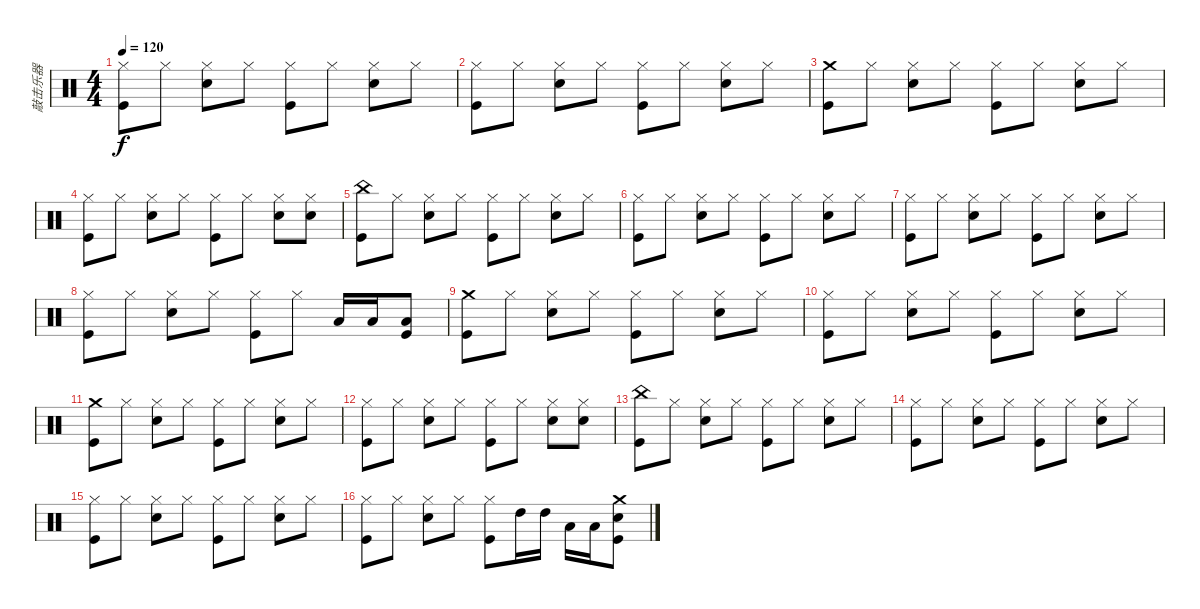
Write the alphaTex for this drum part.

\track ("敲击乐器" "敲击乐器") {instrument percussion}
\staff {score}
\articulation defaults
\ts (4 4)
\tempo 120
\clef neutral
\ks c
("Kick (hit)" "Hi-Hat (closed)").8{dy f} "Hi-Hat (closed)".8 ("Snare (hit) 2" "Hi-Hat (closed)").8 "Hi-Hat (closed)".8 ("Kick (hit)" "Hi-Hat (closed)").8 "Hi-Hat (closed)".8 ("Snare (hit) 2" "Hi-Hat (closed)").8 "Hi-Hat (closed)".8 |
("Kick (hit)" "Hi-Hat (closed)").8 "Hi-Hat (closed)".8 ("Snare (hit) 2" "Hi-Hat (closed)").8 "Hi-Hat (closed)".8 ("Kick (hit)" "Hi-Hat (closed)").8 "Hi-Hat (closed)".8 ("Snare (hit) 2" "Hi-Hat (closed)").8 "Hi-Hat (closed)".8 |
("Kick (hit)" "Crash medium (hit)").8 "Hi-Hat (closed)".8 ("Snare (hit) 2" "Hi-Hat (closed)").8 "Hi-Hat (closed)".8 ("Kick (hit)" "Hi-Hat (closed)").8 "Hi-Hat (closed)".8 ("Snare (hit) 2" "Hi-Hat (closed)").8 "Hi-Hat (closed)".8 |
("Kick (hit)" "Hi-Hat (closed)").8 "Hi-Hat (closed)".8 ("Snare (hit) 2" "Hi-Hat (closed)").8 "Hi-Hat (closed)".8 ("Kick (hit)" "Hi-Hat (closed)").8 "Hi-Hat (closed)".8 ("Snare (hit) 2" "Hi-Hat (closed)").8 ("Hi-Hat (closed)" "Snare (hit) 2").8 |
("Kick (hit)" "China (hit)").8 "Hi-Hat (closed)".8 ("Snare (hit) 2" "Hi-Hat (closed)").8 "Hi-Hat (closed)".8 ("Kick (hit)" "Hi-Hat (closed)").8 "Hi-Hat (closed)".8 ("Snare (hit) 2" "Hi-Hat (closed)").8 "Hi-Hat (closed)".8 |
("Kick (hit)" "Hi-Hat (closed)").8 "Hi-Hat (closed)".8 ("Snare (hit) 2" "Hi-Hat (closed)").8 "Hi-Hat (closed)".8 ("Kick (hit)" "Hi-Hat (closed)").8 "Hi-Hat (closed)".8 ("Snare (hit) 2" "Hi-Hat (closed)").8 "Hi-Hat (closed)".8 |
("Kick (hit)" "Hi-Hat (closed)").8 "Hi-Hat (closed)".8 ("Snare (hit) 2" "Hi-Hat (closed)").8 "Hi-Hat (closed)".8 ("Kick (hit)" "Hi-Hat (closed)").8 "Hi-Hat (closed)".8 ("Snare (hit) 2" "Hi-Hat (closed)").8 "Hi-Hat (closed)".8 |
("Kick (hit)" "Hi-Hat (closed)").8 "Hi-Hat (closed)".8 ("Snare (hit) 2" "Hi-Hat (closed)").8 "Hi-Hat (closed)".8 ("Kick (hit)" "Hi-Hat (closed)").8 "Hi-Hat (closed)".8 "Low Tom (hit)".16 "Low Tom (hit)".16 ("Kick (hit)" "Low Tom (hit)").8 |
("Kick (hit)" "Crash medium (hit)").8 "Hi-Hat (closed)".8 ("Snare (hit) 2" "Hi-Hat (closed)").8 "Hi-Hat (closed)".8 ("Kick (hit)" "Hi-Hat (closed)").8 "Hi-Hat (closed)".8 ("Snare (hit) 2" "Hi-Hat (closed)").8 "Hi-Hat (closed)".8 |
("Kick (hit)" "Hi-Hat (closed)").8 "Hi-Hat (closed)".8 ("Snare (hit) 2" "Hi-Hat (closed)").8 "Hi-Hat (closed)".8 ("Kick (hit)" "Hi-Hat (closed)").8 "Hi-Hat (closed)".8 ("Snare (hit) 2" "Hi-Hat (closed)").8 "Hi-Hat (closed)".8 |
("Kick (hit)" "Crash medium (hit)").8 "Hi-Hat (closed)".8 ("Snare (hit) 2" "Hi-Hat (closed)").8 "Hi-Hat (closed)".8 ("Kick (hit)" "Hi-Hat (closed)").8 "Hi-Hat (closed)".8 ("Snare (hit) 2" "Hi-Hat (closed)").8 "Hi-Hat (closed)".8 |
("Kick (hit)" "Hi-Hat (closed)").8 "Hi-Hat (closed)".8 ("Snare (hit) 2" "Hi-Hat (closed)").8 "Hi-Hat (closed)".8 ("Kick (hit)" "Hi-Hat (closed)").8 "Hi-Hat (closed)".8 ("Snare (hit) 2" "Hi-Hat (closed)").8 ("Hi-Hat (closed)" "Snare (hit) 2").8 |
("Kick (hit)" "China (hit)").8 "Hi-Hat (closed)".8 ("Snare (hit) 2" "Hi-Hat (closed)").8 "Hi-Hat (closed)".8 ("Kick (hit)" "Hi-Hat (closed)").8 "Hi-Hat (closed)".8 ("Snare (hit) 2" "Hi-Hat (closed)").8 "Hi-Hat (closed)".8 |
("Kick (hit)" "Hi-Hat (closed)").8 "Hi-Hat (closed)".8 ("Snare (hit) 2" "Hi-Hat (closed)").8 "Hi-Hat (closed)".8 ("Kick (hit)" "Hi-Hat (closed)").8 "Hi-Hat (closed)".8 ("Snare (hit) 2" "Hi-Hat (closed)").8 "Hi-Hat (closed)".8 |
("Kick (hit)" "Hi-Hat (closed)").8 "Hi-Hat (closed)".8 ("Snare (hit) 2" "Hi-Hat (closed)").8 "Hi-Hat (closed)".8 ("Kick (hit)" "Hi-Hat (closed)").8 "Hi-Hat (closed)".8 ("Snare (hit) 2" "Hi-Hat (closed)").8 "Hi-Hat (closed)".8 |
("Kick (hit)" "Hi-Hat (closed)").8 "Hi-Hat (closed)".8 ("Snare (hit) 2" "Hi-Hat (closed)").8 "Hi-Hat (closed)".8 ("Kick (hit)" "Hi-Hat (closed)").8 "High Tom (hit)".16 "High Tom (hit)".16 "Low Tom (hit)".16 "Low Tom (hit)".16 ("Kick (hit)" "Crash medium (hit)" "Snare (hit) 2").8
